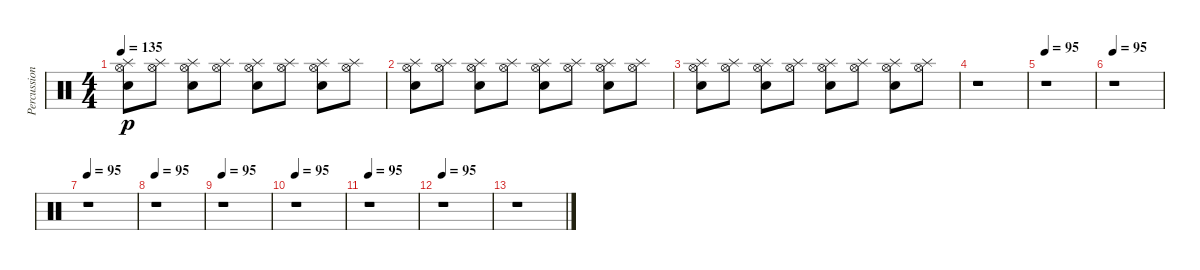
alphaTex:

\track ("Percussions" "Percussion") {instrument percussion}
\staff {score}
\articulation defaults
\ts (4 4)
\tempo 135
\clef neutral
\ks c
("Hi-Hat (open)" "Splash (hit)" "Electric Snare (hit)").8{dy p} ("Hi-Hat (open)" "Splash (hit)").8 ("Hi-Hat (open)" "Splash (hit)" "Electric Snare (hit)").8 ("Hi-Hat (open)" "Splash (hit)").8 ("Hi-Hat (open)" "Splash (hit)" "Electric Snare (hit)").8 ("Hi-Hat (open)" "Splash (hit)").8 ("Hi-Hat (open)" "Splash (hit)" "Electric Snare (hit)").8 ("Hi-Hat (open)" "Splash (hit)").8 |
("Hi-Hat (open)" "Splash (hit)" "Electric Snare (hit)").8 ("Hi-Hat (open)" "Splash (hit)").8 ("Hi-Hat (open)" "Splash (hit)" "Electric Snare (hit)").8 ("Hi-Hat (open)" "Splash (hit)").8 ("Hi-Hat (open)" "Splash (hit)" "Electric Snare (hit)").8 ("Hi-Hat (open)" "Splash (hit)").8 ("Hi-Hat (open)" "Splash (hit)" "Electric Snare (hit)").8 ("Hi-Hat (open)" "Splash (hit)").8 |
("Hi-Hat (open)" "Splash (hit)" "Electric Snare (hit)").8 ("Hi-Hat (open)" "Splash (hit)").8 ("Hi-Hat (open)" "Splash (hit)" "Electric Snare (hit)").8 ("Hi-Hat (open)" "Splash (hit)").8 ("Hi-Hat (open)" "Splash (hit)" "Electric Snare (hit)").8 ("Hi-Hat (open)" "Splash (hit)").8 ("Hi-Hat (open)" "Splash (hit)" "Electric Snare (hit)").8 ("Hi-Hat (open)" "Splash (hit)").8 |
r.1 |
\tempo 95
r.1 |
\tempo 95
r.1 |
\tempo 95
r.1 |
\tempo 95
r.1 |
\tempo 95
r.1 |
\tempo 95
r.1 |
\tempo 95
r.1 |
\tempo 95
r.1 |
r.1
